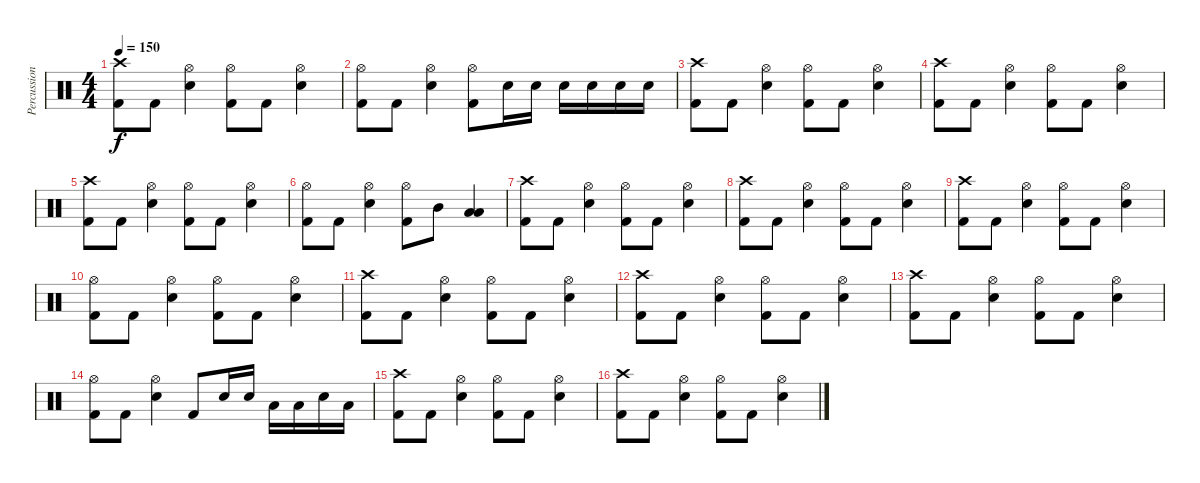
\track ("Percussion" "Percussion") {instrument percussion}
\staff {score}
\articulation defaults
\ts (4 4)
\tempo 150
\clef neutral
\ks c
("Crash high (hit)" "Kick (hit) 2").8{dy f} "Kick (hit) 2".8 ("Hi-Hat (open)" "Snare (hit) 2").4 ("Hi-Hat (open)" "Kick (hit) 2").8 "Kick (hit) 2".8 ("Hi-Hat (open)" "Snare (hit) 2").4 |
("Hi-Hat (open)" "Kick (hit) 2").8 "Kick (hit) 2".8 ("Hi-Hat (open)" "Snare (hit) 2").4 ("Hi-Hat (open)" "Kick (hit) 2").8 "Snare (hit) 2".16{volume 9} "Snare (hit) 2".16{volume 13} "Snare (hit) 2".16 "Snare (hit) 2".16 "Snare (hit) 2".16 "Snare (hit) 2".16 |
("Crash high (hit)" "Kick (hit) 2").8 "Kick (hit) 2".8 ("Hi-Hat (open)" "Snare (hit) 2").4 ("Hi-Hat (open)" "Kick (hit) 2").8 "Kick (hit) 2".8 ("Hi-Hat (open)" "Snare (hit) 2").4 |
("Crash high (hit)" "Kick (hit) 2").8 "Kick (hit) 2".8 ("Hi-Hat (open)" "Snare (hit) 2").4 ("Hi-Hat (open)" "Kick (hit) 2").8 "Kick (hit) 2".8 ("Hi-Hat (open)" "Snare (hit) 2").4 |
("Crash high (hit)" "Kick (hit) 2").8 "Kick (hit) 2".8 ("Hi-Hat (open)" "Snare (hit) 2").4 ("Hi-Hat (open)" "Kick (hit) 2").8 "Kick (hit) 2".8 ("Hi-Hat (open)" "Snare (hit) 2").4 |
("Hi-Hat (open)" "Kick (hit) 2").8 "Kick (hit) 2".8 ("Hi-Hat (open)" "Snare (hit) 2").4 ("Hi-Hat (open)" "Kick (hit) 2").8 "Mid Tom (hit)".8 ("Low Tom (hit)" "Low Floor Tom (hit)").4 |
("Crash high (hit)" "Kick (hit) 2").8 "Kick (hit) 2".8 ("Hi-Hat (open)" "Snare (hit) 2").4 ("Hi-Hat (open)" "Kick (hit) 2").8 "Kick (hit) 2".8 ("Hi-Hat (open)" "Snare (hit) 2").4 |
("Crash high (hit)" "Kick (hit) 2").8 "Kick (hit) 2".8 ("Hi-Hat (open)" "Snare (hit) 2").4 ("Hi-Hat (open)" "Kick (hit) 2").8 "Kick (hit) 2".8 ("Hi-Hat (open)" "Snare (hit) 2").4 |
("Crash high (hit)" "Kick (hit) 2").8 "Kick (hit) 2".8 ("Hi-Hat (open)" "Snare (hit) 2").4 ("Hi-Hat (open)" "Kick (hit) 2").8 "Kick (hit) 2".8 ("Hi-Hat (open)" "Snare (hit) 2").4 |
("Hi-Hat (open)" "Kick (hit) 2").8 "Kick (hit) 2".8 ("Hi-Hat (open)" "Snare (hit) 2").4 ("Hi-Hat (open)" "Kick (hit) 2").8 "Kick (hit) 2".8 ("Hi-Hat (open)" "Snare (hit) 2").4 |
("Crash high (hit)" "Kick (hit) 2").8 "Kick (hit) 2".8 ("Hi-Hat (open)" "Snare (hit) 2").4 ("Hi-Hat (open)" "Kick (hit) 2").8 "Kick (hit) 2".8 ("Hi-Hat (open)" "Snare (hit) 2").4 |
("Crash high (hit)" "Kick (hit) 2").8 "Kick (hit) 2".8 ("Hi-Hat (open)" "Snare (hit) 2").4 ("Hi-Hat (open)" "Kick (hit) 2").8 "Kick (hit) 2".8 ("Hi-Hat (open)" "Snare (hit) 2").4 |
("Crash high (hit)" "Kick (hit) 2").8 "Kick (hit) 2".8 ("Hi-Hat (open)" "Snare (hit) 2").4 ("Hi-Hat (open)" "Kick (hit) 2").8 "Kick (hit) 2".8 ("Hi-Hat (open)" "Snare (hit) 2").4 |
("Hi-Hat (open)" "Kick (hit) 2").8 "Kick (hit) 2".8 ("Hi-Hat (open)" "Snare (hit) 2").4 "Kick (hit) 2".8 "Snare (hit) 2".16 "Snare (hit) 2".16 "Low Tom (hit)".16 "Low Tom (hit)".16 "Snare (hit) 2".16 "Low Floor Tom (hit)".16 |
("Crash high (hit)" "Kick (hit) 2").8 "Kick (hit) 2".8 ("Hi-Hat (open)" "Snare (hit) 2").4 ("Hi-Hat (open)" "Kick (hit) 2").8 "Kick (hit) 2".8 ("Hi-Hat (open)" "Snare (hit) 2").4 |
("Crash high (hit)" "Kick (hit) 2").8 "Kick (hit) 2".8 ("Hi-Hat (open)" "Snare (hit) 2").4 ("Hi-Hat (open)" "Kick (hit) 2").8 "Kick (hit) 2".8 ("Hi-Hat (open)" "Snare (hit) 2").4
